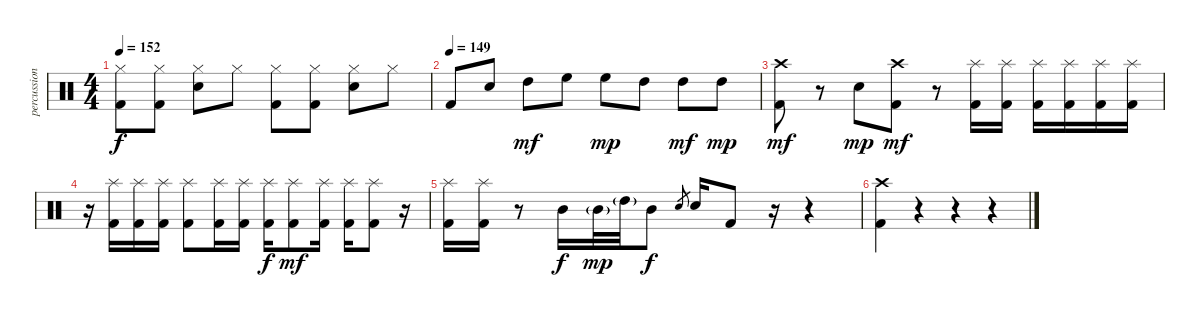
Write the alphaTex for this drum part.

\track ("percussion" "percussion") {instrument percussion}
\staff {score}
\articulation defaults
\ts (4 4)
\tempo 152
\clef neutral
\ks c
("Hi-Hat (closed)" "Kick (hit) 2").8{dy f} ("Hi-Hat (closed)" "Kick (hit) 2").8 ("Electric Snare (hit)" "Hi-Hat (closed)").8 "Hi-Hat (closed)".8 ("Hi-Hat (closed)" "Kick (hit) 2").8 ("Hi-Hat (closed)" "Kick (hit) 2").8 ("Electric Snare (hit)" "Hi-Hat (closed)").8 "Hi-Hat (closed)".8 |
\tempo (149)
"Kick (hit) 2".8 "Electric Snare (hit)".8 "High Tom (hit)".8{dy mf} "High Floor Tom (hit)".8 "High Floor Tom (hit)".8{dy mp} "High Tom (hit)".8 "High Tom (hit)".8{dy mf} "High Tom (hit)".8{dy mp} |
("Crash high (hit)" "Kick (hit) 2").8{dy mf} r.8 "Electric Snare (hit)".8{dy mp} ("Crash high (hit)" "Kick (hit) 2").8{dy mf} r.8 ("Splash (hit)" "Kick (hit) 2").16 ("Splash (hit)" "Kick (hit) 2").16 ("Splash (hit)" "Kick (hit) 2").16 ("Splash (hit)" "Kick (hit) 2").16 ("Splash (hit)" "Kick (hit) 2").16 ("Splash (hit)" "Kick (hit) 2").16 |
r.16 ("Splash (hit)" "Kick (hit) 2").16 ("Splash (hit)" "Kick (hit) 2").16 ("Splash (hit)" "Kick (hit) 2").16 ("Splash (hit)" "Kick (hit) 2").8 ("Splash (hit)" "Kick (hit) 2").16 ("Splash (hit)" "Kick (hit) 2").16 ("Splash (hit)" "Kick (hit) 2").16{dy f} ("Splash (hit)" "Kick (hit) 2").8{dy mf} ("Splash (hit)" "Kick (hit) 2").16 ("Splash (hit)" "Kick (hit) 2").16 ("Splash (hit)" "Kick (hit) 2").8 r.16 |
("Splash (hit)" "Kick (hit) 2").16 ("Splash (hit)" "Kick (hit) 2").16 r.8 "Mid Tom (hit)".16{dy f} "Mid Tom (hit)"{g}.32{dy mp} "High Tom (hit)"{g}.32 "Mid Tom (hit)".8{dy f} "Electric Snare (hit)".8{gr} "Electric Snare (hit)".16 "Kick (hit) 2".8 r.16 r.4 |
("Crash high (hit)" "Kick (hit) 2").4 r.4 r.4 r.4
